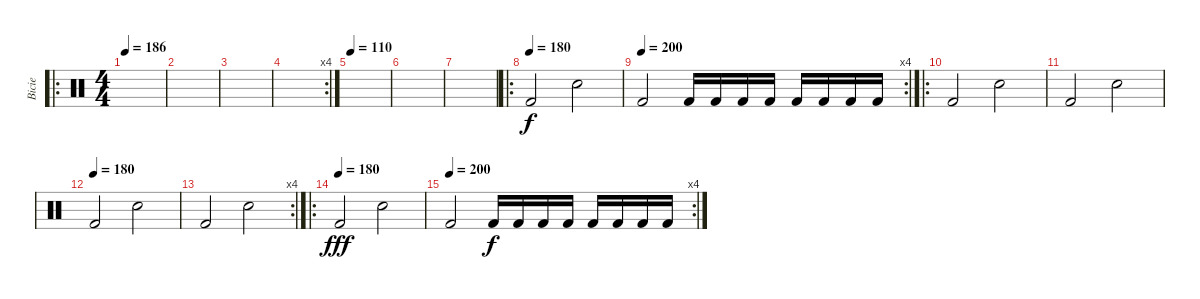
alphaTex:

\track ("Bicie" "Bicie") {instrument percussion}
\staff {score}
\articulation defaults
\ro
\ts (4 4)
\tempo 186
\tempo 110
\tempo 186
\clef neutral
\ks c
|
|
|
\rc 4
|
\tempo 110
|
|
|
\ro
\tempo (180)
"Kick (hit) 2".2 "Electric Snare (hit)".2 |
\rc 4
\tempo (200)
"Kick (hit) 2".2 "Kick (hit) 2".16{dy f} "Kick (hit) 2".16 "Kick (hit) 2".16 "Kick (hit) 2".16 "Kick (hit) 2".16 "Kick (hit) 2".16 "Kick (hit) 2".16 "Kick (hit) 2".16 |
\ro "Kick (hit) 2".2 "Electric Snare (hit)".2
|
"Kick (hit) 2".2 "Electric Snare (hit)".2 |
\tempo (180)
"Kick (hit) 2".2 "Electric Snare (hit)".2 |
\rc 4 "Kick (hit) 2".2 "Electric Snare (hit)".2
|
\ro
\tempo (180)
"Kick (hit) 2".2{dy fff} "Electric Snare (hit)".2 |
\rc 4
\tempo (200)
"Kick (hit) 2".2 "Kick (hit) 2".16{dy f} "Kick (hit) 2".16 "Kick (hit) 2".16 "Kick (hit) 2".16 "Kick (hit) 2".16 "Kick (hit) 2".16 "Kick (hit) 2".16 "Kick (hit) 2".16
